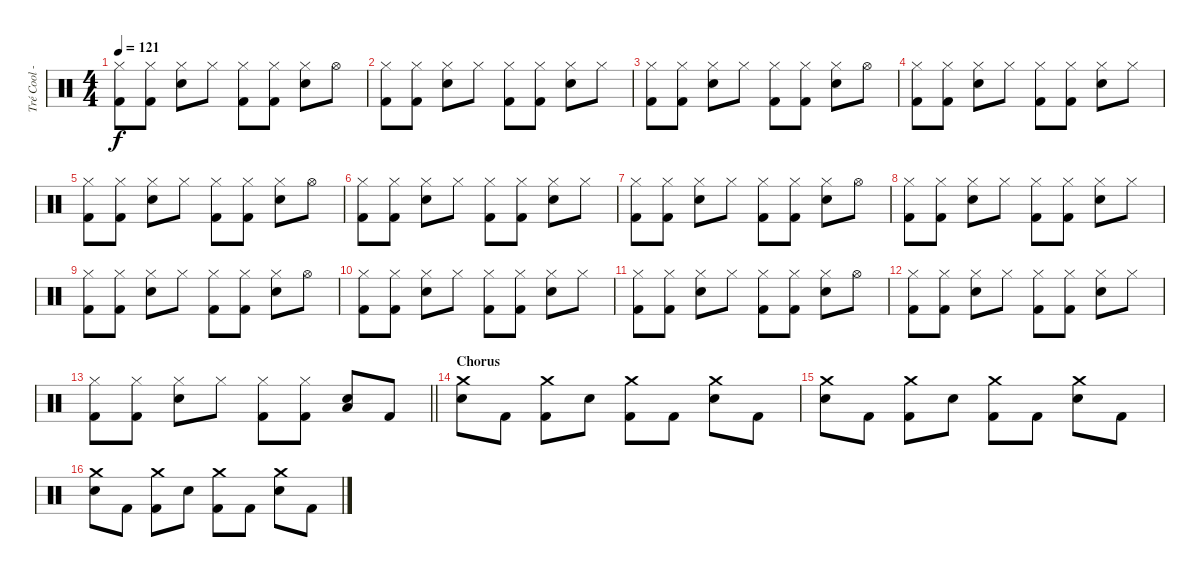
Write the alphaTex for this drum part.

\track ("Tré Cool - Drums" "Tré Cool -") {instrument percussion}
\staff {score}
\articulation defaults
\ts (4 4)
\tempo 121
\clef neutral
\ks c
("Hi-Hat (closed)" "Kick (hit) 2").8{dy f} ("Hi-Hat (closed)" "Kick (hit) 2").8 ("Hi-Hat (closed)" "Electric Snare (hit)").8 "Hi-Hat (closed)".8 ("Hi-Hat (closed)" "Kick (hit) 2").8 ("Hi-Hat (closed)" "Kick (hit) 2").8 ("Hi-Hat (closed)" "Electric Snare (hit)").8 "Hi-Hat (open)".8 |
("Hi-Hat (closed)" "Kick (hit) 2").8 ("Hi-Hat (closed)" "Kick (hit) 2").8 ("Hi-Hat (closed)" "Electric Snare (hit)").8 "Hi-Hat (closed)".8 ("Hi-Hat (closed)" "Kick (hit) 2").8 ("Hi-Hat (closed)" "Kick (hit) 2").8 ("Hi-Hat (closed)" "Electric Snare (hit)").8 "Hi-Hat (closed)".8 |
("Hi-Hat (closed)" "Kick (hit) 2").8 ("Hi-Hat (closed)" "Kick (hit) 2").8 ("Hi-Hat (closed)" "Electric Snare (hit)").8 "Hi-Hat (closed)".8 ("Hi-Hat (closed)" "Kick (hit) 2").8 ("Hi-Hat (closed)" "Kick (hit) 2").8 ("Hi-Hat (closed)" "Electric Snare (hit)").8 "Hi-Hat (open)".8 |
("Hi-Hat (closed)" "Kick (hit) 2").8 ("Hi-Hat (closed)" "Kick (hit) 2").8 ("Hi-Hat (closed)" "Electric Snare (hit)").8 "Hi-Hat (closed)".8 ("Hi-Hat (closed)" "Kick (hit) 2").8 ("Hi-Hat (closed)" "Kick (hit) 2").8 ("Hi-Hat (closed)" "Electric Snare (hit)").8 "Hi-Hat (closed)".8 |
("Hi-Hat (closed)" "Kick (hit) 2").8 ("Hi-Hat (closed)" "Kick (hit) 2").8 ("Hi-Hat (closed)" "Electric Snare (hit)").8 "Hi-Hat (closed)".8 ("Hi-Hat (closed)" "Kick (hit) 2").8 ("Hi-Hat (closed)" "Kick (hit) 2").8 ("Hi-Hat (closed)" "Electric Snare (hit)").8 "Hi-Hat (open)".8 |
("Hi-Hat (closed)" "Kick (hit) 2").8 ("Hi-Hat (closed)" "Kick (hit) 2").8 ("Hi-Hat (closed)" "Electric Snare (hit)").8 "Hi-Hat (closed)".8 ("Hi-Hat (closed)" "Kick (hit) 2").8 ("Hi-Hat (closed)" "Kick (hit) 2").8 ("Hi-Hat (closed)" "Electric Snare (hit)").8 "Hi-Hat (closed)".8 |
("Hi-Hat (closed)" "Kick (hit) 2").8 ("Hi-Hat (closed)" "Kick (hit) 2").8 ("Hi-Hat (closed)" "Electric Snare (hit)").8 "Hi-Hat (closed)".8 ("Hi-Hat (closed)" "Kick (hit) 2").8 ("Hi-Hat (closed)" "Kick (hit) 2").8 ("Hi-Hat (closed)" "Electric Snare (hit)").8 "Hi-Hat (open)".8 |
("Hi-Hat (closed)" "Kick (hit) 2").8 ("Hi-Hat (closed)" "Kick (hit) 2").8 ("Hi-Hat (closed)" "Electric Snare (hit)").8 "Hi-Hat (closed)".8 ("Hi-Hat (closed)" "Kick (hit) 2").8 ("Hi-Hat (closed)" "Kick (hit) 2").8 ("Hi-Hat (closed)" "Electric Snare (hit)").8 "Hi-Hat (closed)".8 |
("Hi-Hat (closed)" "Kick (hit) 2").8 ("Hi-Hat (closed)" "Kick (hit) 2").8 ("Hi-Hat (closed)" "Electric Snare (hit)").8 "Hi-Hat (closed)".8 ("Hi-Hat (closed)" "Kick (hit) 2").8 ("Hi-Hat (closed)" "Kick (hit) 2").8 ("Hi-Hat (closed)" "Electric Snare (hit)").8 "Hi-Hat (open)".8 |
("Hi-Hat (closed)" "Kick (hit) 2").8 ("Hi-Hat (closed)" "Kick (hit) 2").8 ("Hi-Hat (closed)" "Electric Snare (hit)").8 "Hi-Hat (closed)".8 ("Hi-Hat (closed)" "Kick (hit) 2").8 ("Hi-Hat (closed)" "Kick (hit) 2").8 ("Hi-Hat (closed)" "Electric Snare (hit)").8 "Hi-Hat (closed)".8 |
("Hi-Hat (closed)" "Kick (hit) 2").8 ("Hi-Hat (closed)" "Kick (hit) 2").8 ("Hi-Hat (closed)" "Electric Snare (hit)").8 "Hi-Hat (closed)".8 ("Hi-Hat (closed)" "Kick (hit) 2").8 ("Hi-Hat (closed)" "Kick (hit) 2").8 ("Hi-Hat (closed)" "Electric Snare (hit)").8 "Hi-Hat (open)".8 |
("Hi-Hat (closed)" "Kick (hit) 2").8 ("Hi-Hat (closed)" "Kick (hit) 2").8 ("Hi-Hat (closed)" "Electric Snare (hit)").8 "Hi-Hat (closed)".8 ("Hi-Hat (closed)" "Kick (hit) 2").8 ("Hi-Hat (closed)" "Kick (hit) 2").8 ("Hi-Hat (closed)" "Electric Snare (hit)").8 "Hi-Hat (closed)".8 |
\barLineRight lightlight
("Hi-Hat (closed)" "Kick (hit) 2").8 ("Hi-Hat (closed)" "Kick (hit) 2").8 ("Hi-Hat (closed)" "Electric Snare (hit)").8 "Hi-Hat (closed)".8 ("Hi-Hat (closed)" "Kick (hit) 2").8 ("Hi-Hat (closed)" "Kick (hit) 2").8 ("Low Tom (hit)" "Electric Snare (hit)").8 "Kick (hit) 2".8 |
\section ("" "Chorus")
("Crash medium (hit)" "Electric Snare (hit)").8 "Kick (hit) 2".8 ("Crash medium (hit)" "Kick (hit) 2").8 "Electric Snare (hit)".8 ("Crash medium (hit)" "Kick (hit) 2").8 "Kick (hit) 2".8 ("Crash medium (hit)" "Electric Snare (hit)").8 "Kick (hit) 2".8 |
("Crash medium (hit)" "Electric Snare (hit)").8 "Kick (hit) 2".8 ("Crash medium (hit)" "Kick (hit) 2").8 "Electric Snare (hit)".8 ("Crash medium (hit)" "Kick (hit) 2").8 "Kick (hit) 2".8 ("Crash medium (hit)" "Electric Snare (hit)").8 "Kick (hit) 2".8 |
("Crash medium (hit)" "Electric Snare (hit)").8 "Kick (hit) 2".8 ("Crash medium (hit)" "Kick (hit) 2").8 "Electric Snare (hit)".8 ("Crash medium (hit)" "Kick (hit) 2").8 "Kick (hit) 2".8 ("Crash medium (hit)" "Electric Snare (hit)").8 "Kick (hit) 2".8
